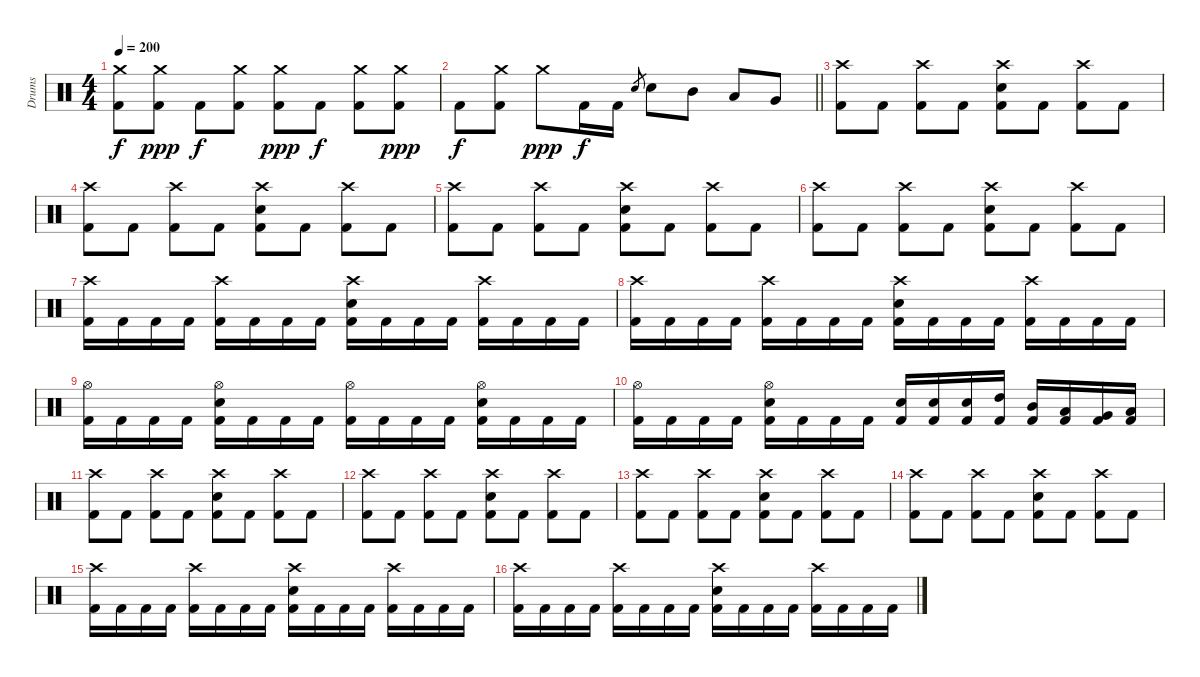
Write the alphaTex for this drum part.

\track ("Drums" "Drums") {instrument percussion}
\staff {score}
\articulation defaults
\ts (4 4)
\tempo 200
\clef neutral
\ks c
("Crash medium (hit)" "Kick (hit) 2").8{dy f} ("Crash medium (hit)" "Kick (hit) 2").8{dy ppp} "Kick (hit) 2".8{dy f} ("Crash medium (hit)" "Kick (hit) 2").8 ("Crash medium (hit)" "Kick (hit) 2").8{dy ppp} "Kick (hit) 2".8{dy f} ("Crash medium (hit)" "Kick (hit) 2").8 ("Crash medium (hit)" "Kick (hit) 2").8{dy ppp} |
\barLineRight lightlight "Kick (hit) 2".8{dy f}
("Crash medium (hit)" "Kick (hit) 2").8 "Crash medium (hit)".8{dy ppp} "Kick (hit) 2".16{dy f} "Kick (hit) 2".16 "Electric Snare (hit)".8{gr} "Electric Snare (hit)".8 "Mid Tom (hit)".8 "Low Tom (hit)".8 "Very Low Tom (hit)".8 |
\section ("" "")
("Crash high (hit)" "Kick (hit) 2").8 "Kick (hit) 2".8 ("Crash high (hit)" "Kick (hit) 2").8 "Kick (hit) 2".8 ("Crash high (hit)" "Electric Snare (hit)" "Kick (hit) 2").8 "Kick (hit) 2".8 ("Crash high (hit)" "Kick (hit) 2").8 "Kick (hit) 2".8 |
("Crash high (hit)" "Kick (hit) 2").8 "Kick (hit) 2".8 ("Crash high (hit)" "Kick (hit) 2").8 "Kick (hit) 2".8 ("Crash high (hit)" "Electric Snare (hit)" "Kick (hit) 2").8 "Kick (hit) 2".8 ("Crash high (hit)" "Kick (hit) 2").8 "Kick (hit) 2".8 |
("Crash high (hit)" "Kick (hit) 2").8 "Kick (hit) 2".8 ("Crash high (hit)" "Kick (hit) 2").8 "Kick (hit) 2".8 ("Crash high (hit)" "Electric Snare (hit)" "Kick (hit) 2").8 "Kick (hit) 2".8 ("Crash high (hit)" "Kick (hit) 2").8 "Kick (hit) 2".8 |
("Crash high (hit)" "Kick (hit) 2").8 "Kick (hit) 2".8 ("Crash high (hit)" "Kick (hit) 2").8 "Kick (hit) 2".8 ("Crash high (hit)" "Electric Snare (hit)" "Kick (hit) 2").8 "Kick (hit) 2".8 ("Crash high (hit)" "Kick (hit) 2").8 "Kick (hit) 2".8 |
("Crash high (hit)" "Kick (hit) 2").16 "Kick (hit) 2".16 "Kick (hit) 2".16 "Kick (hit) 2".16 ("Crash high (hit)" "Kick (hit) 2").16 "Kick (hit) 2".16 "Kick (hit) 2".16 "Kick (hit) 2".16 ("Crash high (hit)" "Electric Snare (hit)" "Kick (hit) 2").16 "Kick (hit) 2".16 "Kick (hit) 2".16 "Kick (hit) 2".16 ("Crash high (hit)" "Kick (hit) 2").16 "Kick (hit) 2".16 "Kick (hit) 2".16 "Kick (hit) 2".16 |
("Crash high (hit)" "Kick (hit) 2").16 "Kick (hit) 2".16 "Kick (hit) 2".16 "Kick (hit) 2".16 ("Crash high (hit)" "Kick (hit) 2").16 "Kick (hit) 2".16 "Kick (hit) 2".16 "Kick (hit) 2".16 ("Crash high (hit)" "Electric Snare (hit)" "Kick (hit) 2").16 "Kick (hit) 2".16 "Kick (hit) 2".16 "Kick (hit) 2".16 ("Crash high (hit)" "Kick (hit) 2").16 "Kick (hit) 2".16 "Kick (hit) 2".16 "Kick (hit) 2".16 |
("Hi-Hat (open)" "Kick (hit) 2").16 "Kick (hit) 2".16 "Kick (hit) 2".16 "Kick (hit) 2".16 ("Hi-Hat (open)" "Electric Snare (hit)" "Kick (hit) 2").16 "Kick (hit) 2".16 "Kick (hit) 2".16 "Kick (hit) 2".16 ("Hi-Hat (open)" "Kick (hit) 2").16 "Kick (hit) 2".16 "Kick (hit) 2".16 "Kick (hit) 2".16 ("Hi-Hat (open)" "Electric Snare (hit)" "Kick (hit) 2").16 "Kick (hit) 2".16 "Kick (hit) 2".16 "Kick (hit) 2".16 |
("Hi-Hat (open)" "Kick (hit) 2").16 "Kick (hit) 2".16 "Kick (hit) 2".16 "Kick (hit) 2".16 ("Hi-Hat (open)" "Electric Snare (hit)" "Kick (hit) 2").16 "Kick (hit) 2".16 "Kick (hit) 2".16 "Kick (hit) 2".16 ("Electric Snare (hit)" "Kick (hit) 2").16 ("Electric Snare (hit)" "Kick (hit) 2").16 ("Electric Snare (hit)" "Kick (hit) 2").16 ("High Tom (hit)" "Kick (hit) 2").16 ("Mid Tom (hit)" "Kick (hit) 2").16 ("Low Tom (hit)" "Kick (hit) 2").16 ("Very Low Tom (hit)" "Kick (hit) 2").16 ("Low Floor Tom (hit)" "Kick (hit) 2").16 |
("Crash high (hit)" "Kick (hit) 2").8 "Kick (hit) 2".8 ("Crash high (hit)" "Kick (hit) 2").8 "Kick (hit) 2".8 ("Crash high (hit)" "Electric Snare (hit)" "Kick (hit) 2").8 "Kick (hit) 2".8 ("Crash high (hit)" "Kick (hit) 2").8 "Kick (hit) 2".8 |
("Crash high (hit)" "Kick (hit) 2").8 "Kick (hit) 2".8 ("Crash high (hit)" "Kick (hit) 2").8 "Kick (hit) 2".8 ("Crash high (hit)" "Electric Snare (hit)" "Kick (hit) 2").8 "Kick (hit) 2".8 ("Crash high (hit)" "Kick (hit) 2").8 "Kick (hit) 2".8 |
("Crash high (hit)" "Kick (hit) 2").8 "Kick (hit) 2".8 ("Crash high (hit)" "Kick (hit) 2").8 "Kick (hit) 2".8 ("Crash high (hit)" "Electric Snare (hit)" "Kick (hit) 2").8 "Kick (hit) 2".8 ("Crash high (hit)" "Kick (hit) 2").8 "Kick (hit) 2".8 |
("Crash high (hit)" "Kick (hit) 2").8 "Kick (hit) 2".8 ("Crash high (hit)" "Kick (hit) 2").8 "Kick (hit) 2".8 ("Crash high (hit)" "Electric Snare (hit)" "Kick (hit) 2").8 "Kick (hit) 2".8 ("Crash high (hit)" "Kick (hit) 2").8 "Kick (hit) 2".8 |
("Crash high (hit)" "Kick (hit) 2").16 "Kick (hit) 2".16 "Kick (hit) 2".16 "Kick (hit) 2".16 ("Crash high (hit)" "Kick (hit) 2").16 "Kick (hit) 2".16 "Kick (hit) 2".16 "Kick (hit) 2".16 ("Crash high (hit)" "Electric Snare (hit)" "Kick (hit) 2").16 "Kick (hit) 2".16 "Kick (hit) 2".16 "Kick (hit) 2".16 ("Crash high (hit)" "Kick (hit) 2").16 "Kick (hit) 2".16 "Kick (hit) 2".16 "Kick (hit) 2".16 |
("Crash high (hit)" "Kick (hit) 2").16 "Kick (hit) 2".16 "Kick (hit) 2".16 "Kick (hit) 2".16 ("Crash high (hit)" "Kick (hit) 2").16 "Kick (hit) 2".16 "Kick (hit) 2".16 "Kick (hit) 2".16 ("Crash high (hit)" "Electric Snare (hit)" "Kick (hit) 2").16 "Kick (hit) 2".16 "Kick (hit) 2".16 "Kick (hit) 2".16 ("Crash high (hit)" "Kick (hit) 2").16 "Kick (hit) 2".16 "Kick (hit) 2".16 "Kick (hit) 2".16
